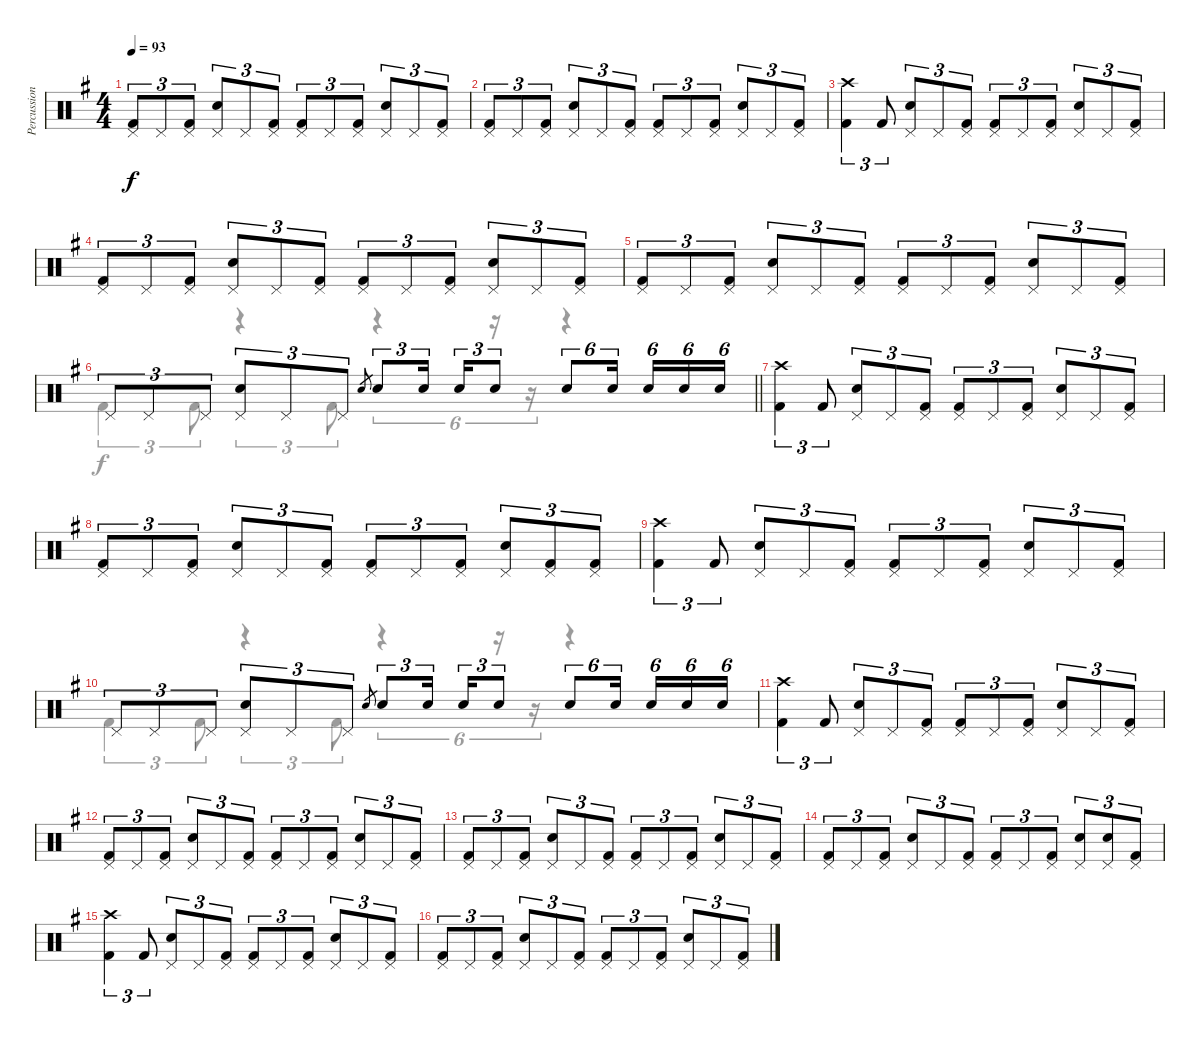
\track ("Percussion" "Percussion") {instrument percussion}
\staff {score}
\articulation defaults
\voice
\ts (4 4)
\tempo 93
\clef neutral
\ks g
("Pedal Hi-Hat (hit)" "Kick (hit) 2").8{tu (3 2) dy f} "Pedal Hi-Hat (hit)".8{tu (3 2)} ("Pedal Hi-Hat (hit)" "Kick (hit) 2").8{tu (3 2)} ("Pedal Hi-Hat (hit)" "Electric Snare (hit)").8{tu (3 2) beam Up} "Pedal Hi-Hat (hit)".8{tu (3 2) beam Up} ("Pedal Hi-Hat (hit)" "Kick (hit) 2").8{tu (3 2) beam Up} ("Pedal Hi-Hat (hit)" "Kick (hit) 2").8{tu (3 2) beam Up} "Pedal Hi-Hat (hit)".8{tu (3 2)} ("Pedal Hi-Hat (hit)" "Kick (hit) 2").8{tu (3 2)} ("Pedal Hi-Hat (hit)" "Electric Snare (hit)").8{tu (3 2)} "Pedal Hi-Hat (hit)".8{tu (3 2)} ("Pedal Hi-Hat (hit)" "Kick (hit) 2").8{tu (3 2)} |
("Pedal Hi-Hat (hit)" "Kick (hit) 2").8{tu (3 2)} "Pedal Hi-Hat (hit)".8{tu (3 2)} ("Pedal Hi-Hat (hit)" "Kick (hit) 2").8{tu (3 2)} ("Pedal Hi-Hat (hit)" "Electric Snare (hit)").8{tu (3 2) beam Up} "Pedal Hi-Hat (hit)".8{tu (3 2) beam Up} ("Pedal Hi-Hat (hit)" "Kick (hit) 2").8{tu (3 2) beam Up} ("Pedal Hi-Hat (hit)" "Kick (hit) 2").8{tu (3 2) beam Up} "Pedal Hi-Hat (hit)".8{tu (3 2)} ("Pedal Hi-Hat (hit)" "Kick (hit) 2").8{tu (3 2)} ("Pedal Hi-Hat (hit)" "Electric Snare (hit)").8{tu (3 2)} "Pedal Hi-Hat (hit)".8{tu (3 2)} ("Pedal Hi-Hat (hit)" "Kick (hit) 2").8{tu (3 2)} |
("Crash high (hit)" "Kick (hit) 2").4{tu (3 2)} "Kick (hit) 2".8{tu (3 2)} ("Pedal Hi-Hat (hit)" "Electric Snare (hit)").8{tu (3 2) beam Up} "Pedal Hi-Hat (hit)".8{tu (3 2) beam Up} ("Pedal Hi-Hat (hit)" "Kick (hit) 2").8{tu (3 2) beam Up} ("Pedal Hi-Hat (hit)" "Kick (hit) 2").8{tu (3 2) beam Up} "Pedal Hi-Hat (hit)".8{tu (3 2)} ("Pedal Hi-Hat (hit)" "Kick (hit) 2").8{tu (3 2)} ("Pedal Hi-Hat (hit)" "Electric Snare (hit)").8{tu (3 2)} "Pedal Hi-Hat (hit)".8{tu (3 2)} ("Pedal Hi-Hat (hit)" "Kick (hit) 2").8{tu (3 2)} |
("Pedal Hi-Hat (hit)" "Kick (hit) 2").8{tu (3 2)} "Pedal Hi-Hat (hit)".8{tu (3 2)} ("Pedal Hi-Hat (hit)" "Kick (hit) 2").8{tu (3 2)} ("Pedal Hi-Hat (hit)" "Electric Snare (hit)").8{tu (3 2) beam Up} "Pedal Hi-Hat (hit)".8{tu (3 2) beam Up} ("Pedal Hi-Hat (hit)" "Kick (hit) 2").8{tu (3 2) beam Up} ("Pedal Hi-Hat (hit)" "Kick (hit) 2").8{tu (3 2) beam Up} "Pedal Hi-Hat (hit)".8{tu (3 2)} ("Pedal Hi-Hat (hit)" "Kick (hit) 2").8{tu (3 2)} ("Pedal Hi-Hat (hit)" "Electric Snare (hit)").8{tu (3 2)} "Pedal Hi-Hat (hit)".8{tu (3 2)} ("Pedal Hi-Hat (hit)" "Kick (hit) 2").8{tu (3 2)} |
("Pedal Hi-Hat (hit)" "Kick (hit) 2").8{tu (3 2)} "Pedal Hi-Hat (hit)".8{tu (3 2)} ("Pedal Hi-Hat (hit)" "Kick (hit) 2").8{tu (3 2)} ("Pedal Hi-Hat (hit)" "Electric Snare (hit)").8{tu (3 2) beam Up} "Pedal Hi-Hat (hit)".8{tu (3 2) beam Up} ("Pedal Hi-Hat (hit)" "Kick (hit) 2").8{tu (3 2) beam Up} ("Pedal Hi-Hat (hit)" "Kick (hit) 2").8{tu (3 2) beam Up} "Pedal Hi-Hat (hit)".8{tu (3 2)} ("Pedal Hi-Hat (hit)" "Kick (hit) 2").8{tu (3 2)} ("Pedal Hi-Hat (hit)" "Electric Snare (hit)").8{tu (3 2)} "Pedal Hi-Hat (hit)".8{tu (3 2)} ("Pedal Hi-Hat (hit)" "Kick (hit) 2").8{tu (3 2)} |
\barLineRight lightlight "Pedal Hi-Hat (hit)".8{tu (3 2)} "Pedal Hi-Hat (hit)".8{tu (3 2)} "Pedal Hi-Hat (hit)".8{tu (3 2)}
("Pedal Hi-Hat (hit)" "Electric Snare (hit)").8{tu (3 2)} "Pedal Hi-Hat (hit)".8{tu (3 2)} "Pedal Hi-Hat (hit)".8{tu (3 2)} "Electric Snare (hit)".8{gr} "Electric Snare (hit)".8{tu (3 2) beam Up} "Electric Snare (hit)".16{tu (3 2) beam Up beam splitsecondary} "Electric Snare (hit)".16{tu (3 2) beam Up beam merge} "Electric Snare (hit)".8{tu (3 2) beam Up} "Electric Snare (hit)".8{tu (6 4) beam Up beam merge} "Electric Snare (hit)".16{tu (6 4) beam splitsecondary} "Electric Snare (hit)".16{tu (6 4)} "Electric Snare (hit)".16{tu (6 4) beam merge} "Electric Snare (hit)".16{tu (6 4)} |
("Crash high (hit)" "Kick (hit) 2").4{tu (3 2)} "Kick (hit) 2".8{tu (3 2)} ("Pedal Hi-Hat (hit)" "Electric Snare (hit)").8{tu (3 2) beam Up} "Pedal Hi-Hat (hit)".8{tu (3 2) beam Up} ("Pedal Hi-Hat (hit)" "Kick (hit) 2").8{tu (3 2) beam Up} ("Pedal Hi-Hat (hit)" "Kick (hit) 2").8{tu (3 2) beam Up} "Pedal Hi-Hat (hit)".8{tu (3 2)} ("Pedal Hi-Hat (hit)" "Kick (hit) 2").8{tu (3 2)} ("Pedal Hi-Hat (hit)" "Electric Snare (hit)").8{tu (3 2)} "Pedal Hi-Hat (hit)".8{tu (3 2)} ("Pedal Hi-Hat (hit)" "Kick (hit) 2").8{tu (3 2)} |
("Pedal Hi-Hat (hit)" "Kick (hit) 2").8{tu (3 2)} "Pedal Hi-Hat (hit)".8{tu (3 2)} ("Pedal Hi-Hat (hit)" "Kick (hit) 2").8{tu (3 2)} ("Pedal Hi-Hat (hit)" "Electric Snare (hit)").8{tu (3 2) beam Up} "Pedal Hi-Hat (hit)".8{tu (3 2) beam Up} ("Pedal Hi-Hat (hit)" "Kick (hit) 2").8{tu (3 2) beam Up} ("Pedal Hi-Hat (hit)" "Kick (hit) 2").8{tu (3 2) beam Up} "Pedal Hi-Hat (hit)".8{tu (3 2)} ("Pedal Hi-Hat (hit)" "Kick (hit) 2").8{tu (3 2)} ("Pedal Hi-Hat (hit)" "Electric Snare (hit)").8{tu (3 2)} ("Pedal Hi-Hat (hit)" "Kick (hit) 2").8{tu (3 2)} ("Pedal Hi-Hat (hit)" "Kick (hit) 2").8{tu (3 2)} |
("Crash high (hit)" "Kick (hit) 2").4{tu (3 2)} "Kick (hit) 2".8{tu (3 2)} ("Pedal Hi-Hat (hit)" "Electric Snare (hit)").8{tu (3 2) beam Up} "Pedal Hi-Hat (hit)".8{tu (3 2) beam Up} ("Pedal Hi-Hat (hit)" "Kick (hit) 2").8{tu (3 2) beam Up} ("Pedal Hi-Hat (hit)" "Kick (hit) 2").8{tu (3 2) beam Up} "Pedal Hi-Hat (hit)".8{tu (3 2)} ("Pedal Hi-Hat (hit)" "Kick (hit) 2").8{tu (3 2)} ("Pedal Hi-Hat (hit)" "Electric Snare (hit)").8{tu (3 2)} "Pedal Hi-Hat (hit)".8{tu (3 2)} ("Pedal Hi-Hat (hit)" "Kick (hit) 2").8{tu (3 2)} |
"Pedal Hi-Hat (hit)".8{tu (3 2)} "Pedal Hi-Hat (hit)".8{tu (3 2)} "Pedal Hi-Hat (hit)".8{tu (3 2)} ("Pedal Hi-Hat (hit)" "Electric Snare (hit)").8{tu (3 2)} "Pedal Hi-Hat (hit)".8{tu (3 2)} "Pedal Hi-Hat (hit)".8{tu (3 2)} "Electric Snare (hit)".8{gr} "Electric Snare (hit)".8{tu (3 2) beam Up} "Electric Snare (hit)".16{tu (3 2) beam Up beam splitsecondary} "Electric Snare (hit)".16{tu (3 2) beam Up beam merge} "Electric Snare (hit)".8{tu (3 2) beam Up} "Electric Snare (hit)".8{tu (6 4) beam Up beam merge} "Electric Snare (hit)".16{tu (6 4) beam splitsecondary} "Electric Snare (hit)".16{tu (6 4)} "Electric Snare (hit)".16{tu (6 4) beam merge} "Electric Snare (hit)".16{tu (6 4)} |
("Crash high (hit)" "Kick (hit) 2").4{tu (3 2)} "Kick (hit) 2".8{tu (3 2)} ("Pedal Hi-Hat (hit)" "Electric Snare (hit)").8{tu (3 2) beam Up} "Pedal Hi-Hat (hit)".8{tu (3 2) beam Up} ("Pedal Hi-Hat (hit)" "Kick (hit) 2").8{tu (3 2) beam Up} ("Pedal Hi-Hat (hit)" "Kick (hit) 2").8{tu (3 2) beam Up} "Pedal Hi-Hat (hit)".8{tu (3 2)} ("Pedal Hi-Hat (hit)" "Kick (hit) 2").8{tu (3 2)} ("Pedal Hi-Hat (hit)" "Electric Snare (hit)").8{tu (3 2)} "Pedal Hi-Hat (hit)".8{tu (3 2)} ("Pedal Hi-Hat (hit)" "Kick (hit) 2").8{tu (3 2)} |
("Pedal Hi-Hat (hit)" "Kick (hit) 2").8{tu (3 2)} "Pedal Hi-Hat (hit)".8{tu (3 2)} ("Pedal Hi-Hat (hit)" "Kick (hit) 2").8{tu (3 2)} ("Pedal Hi-Hat (hit)" "Electric Snare (hit)").8{tu (3 2) beam Up} "Pedal Hi-Hat (hit)".8{tu (3 2) beam Up} ("Pedal Hi-Hat (hit)" "Kick (hit) 2").8{tu (3 2) beam Up} ("Pedal Hi-Hat (hit)" "Kick (hit) 2").8{tu (3 2) beam Up} "Pedal Hi-Hat (hit)".8{tu (3 2)} ("Pedal Hi-Hat (hit)" "Kick (hit) 2").8{tu (3 2)} ("Pedal Hi-Hat (hit)" "Electric Snare (hit)").8{tu (3 2)} "Pedal Hi-Hat (hit)".8{tu (3 2)} ("Pedal Hi-Hat (hit)" "Kick (hit) 2").8{tu (3 2)} |
("Pedal Hi-Hat (hit)" "Kick (hit) 2").8{tu (3 2)} "Pedal Hi-Hat (hit)".8{tu (3 2)} ("Pedal Hi-Hat (hit)" "Kick (hit) 2").8{tu (3 2)} ("Pedal Hi-Hat (hit)" "Electric Snare (hit)").8{tu (3 2) beam Up} "Pedal Hi-Hat (hit)".8{tu (3 2) beam Up} ("Pedal Hi-Hat (hit)" "Kick (hit) 2").8{tu (3 2) beam Up} ("Pedal Hi-Hat (hit)" "Kick (hit) 2").8{tu (3 2) beam Up} "Pedal Hi-Hat (hit)".8{tu (3 2)} ("Pedal Hi-Hat (hit)" "Kick (hit) 2").8{tu (3 2)} ("Pedal Hi-Hat (hit)" "Electric Snare (hit)").8{tu (3 2)} "Pedal Hi-Hat (hit)".8{tu (3 2)} ("Pedal Hi-Hat (hit)" "Kick (hit) 2").8{tu (3 2)} |
("Pedal Hi-Hat (hit)" "Kick (hit) 2").8{tu (3 2)} "Pedal Hi-Hat (hit)".8{tu (3 2)} ("Pedal Hi-Hat (hit)" "Kick (hit) 2").8{tu (3 2)} ("Pedal Hi-Hat (hit)" "Electric Snare (hit)").8{tu (3 2) beam Up} "Pedal Hi-Hat (hit)".8{tu (3 2) beam Up} ("Pedal Hi-Hat (hit)" "Kick (hit) 2").8{tu (3 2) beam Up} ("Pedal Hi-Hat (hit)" "Kick (hit) 2").8{tu (3 2) beam Up} "Pedal Hi-Hat (hit)".8{tu (3 2)} ("Pedal Hi-Hat (hit)" "Kick (hit) 2").8{tu (3 2)} ("Pedal Hi-Hat (hit)" "Electric Snare (hit)").8{tu (3 2)} ("Pedal Hi-Hat (hit)" "Electric Snare (hit)").8{tu (3 2)} ("Pedal Hi-Hat (hit)" "Kick (hit) 2").8{tu (3 2)} |
("Crash high (hit)" "Kick (hit) 2").4{tu (3 2)} "Kick (hit) 2".8{tu (3 2)} ("Pedal Hi-Hat (hit)" "Electric Snare (hit)").8{tu (3 2) beam Up} "Pedal Hi-Hat (hit)".8{tu (3 2) beam Up} ("Pedal Hi-Hat (hit)" "Kick (hit) 2").8{tu (3 2) beam Up} ("Pedal Hi-Hat (hit)" "Kick (hit) 2").8{tu (3 2) beam Up} "Pedal Hi-Hat (hit)".8{tu (3 2)} ("Pedal Hi-Hat (hit)" "Kick (hit) 2").8{tu (3 2)} ("Pedal Hi-Hat (hit)" "Electric Snare (hit)").8{tu (3 2)} "Pedal Hi-Hat (hit)".8{tu (3 2)} ("Pedal Hi-Hat (hit)" "Kick (hit) 2").8{tu (3 2)} |
("Pedal Hi-Hat (hit)" "Kick (hit) 2").8{tu (3 2)} "Pedal Hi-Hat (hit)".8{tu (3 2)} ("Pedal Hi-Hat (hit)" "Kick (hit) 2").8{tu (3 2)} ("Pedal Hi-Hat (hit)" "Electric Snare (hit)").8{tu (3 2) beam Up} "Pedal Hi-Hat (hit)".8{tu (3 2) beam Up} ("Pedal Hi-Hat (hit)" "Kick (hit) 2").8{tu (3 2) beam Up} ("Pedal Hi-Hat (hit)" "Kick (hit) 2").8{tu (3 2) beam Up} "Pedal Hi-Hat (hit)".8{tu (3 2)} ("Pedal Hi-Hat (hit)" "Kick (hit) 2").8{tu (3 2)} ("Pedal Hi-Hat (hit)" "Electric Snare (hit)").8{tu (3 2)} "Pedal Hi-Hat (hit)".8{tu (3 2)} ("Pedal Hi-Hat (hit)" "Kick (hit) 2").8{tu (3 2)}
\voice
\clef neutral
\ottava regular
\simile none
\ks g
|
|
|
|
|
\barLineRight lightlight "Kick (hit) 2".4{tu (3 2)} "Kick (hit) 2".8{tu (3 2)}
r.4{tu (3 2)} "Kick (hit) 2".8{tu (3 2)} r.4{tu (6 4)} r.16{tu (6 4)} r.16{tu (6 4)} r.4 |
|
|
|
"Kick (hit) 2".4{tu (3 2)} "Kick (hit) 2".8{tu (3 2)} r.4{tu (3 2)} "Kick (hit) 2".8{tu (3 2)} r.4{tu (6 4)} r.16{tu (6 4)} r.16{tu (6 4)} r.4 |
|
|
|
|
|
